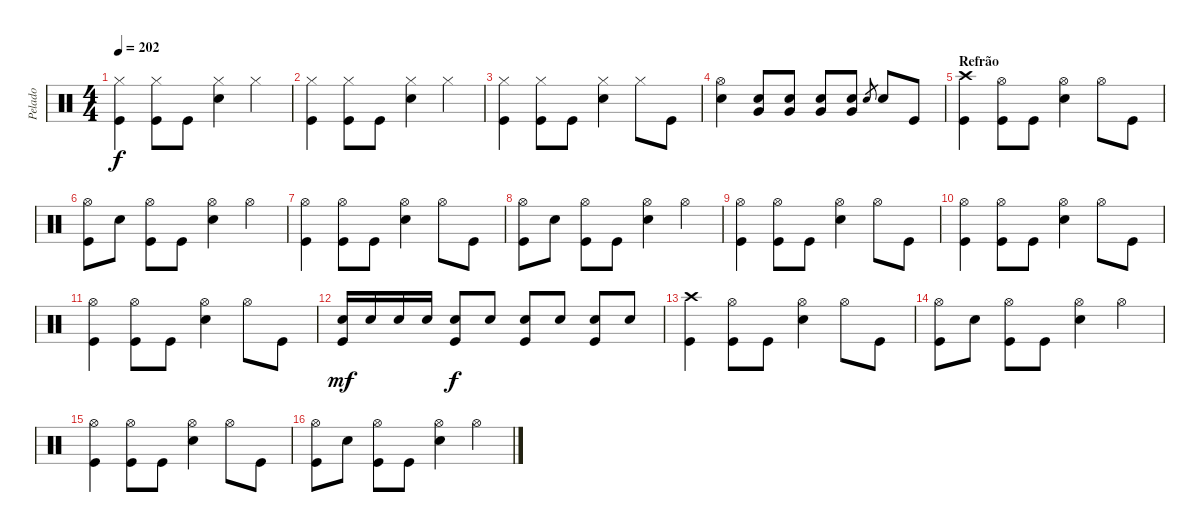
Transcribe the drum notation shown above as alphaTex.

\track ("Pelado" "Pelado") {instrument percussion}
\staff {score}
\articulation defaults
\ts (4 4)
\tempo 202
\clef neutral
\ks c
("Hi-Hat (closed)" "Kick (hit)").4{dy f} ("Hi-Hat (closed)" "Kick (hit)").8 "Kick (hit)".8 ("Hi-Hat (closed)" "Electric Snare (hit)").4 "Hi-Hat (closed)".4 |
("Hi-Hat (closed)" "Kick (hit)").4 ("Hi-Hat (closed)" "Kick (hit)").8 "Kick (hit)".8 ("Hi-Hat (closed)" "Electric Snare (hit)").4 "Hi-Hat (closed)".4 |
("Hi-Hat (closed)" "Kick (hit)").4 ("Hi-Hat (closed)" "Kick (hit)").8 "Kick (hit)".8 ("Hi-Hat (closed)" "Electric Snare (hit)").4 "Hi-Hat (closed)".8 "Kick (hit)".8 |
("Hi-Hat (open)" "Electric Snare (hit)").4 ("Very Low Tom (hit)" "Electric Snare (hit)").8 ("Very Low Tom (hit)" "Electric Snare (hit)").8 ("Very Low Tom (hit)" "Electric Snare (hit)").8 ("Very Low Tom (hit)" "Electric Snare (hit)").8 "Electric Snare (hit)".8{gr} "Electric Snare (hit)".8 "Kick (hit)".8 |
\section ("" "Refrão")
("Crash high (hit)" "Kick (hit)").4 ("Hi-Hat (open)" "Kick (hit)").8 "Kick (hit)".8 ("Hi-Hat (open)" "Electric Snare (hit)").4 "Hi-Hat (open)".8 "Kick (hit)".8 |
("Hi-Hat (open)" "Kick (hit)").8 "Electric Snare (hit)".8 ("Hi-Hat (open)" "Kick (hit)").8 "Kick (hit)".8 ("Hi-Hat (open)" "Electric Snare (hit)").4 "Hi-Hat (open)".4 |
("Hi-Hat (open)" "Kick (hit)").4 ("Hi-Hat (open)" "Kick (hit)").8 "Kick (hit)".8 ("Hi-Hat (open)" "Electric Snare (hit)").4 "Hi-Hat (open)".8 "Kick (hit)".8 |
("Hi-Hat (open)" "Kick (hit)").8 "Electric Snare (hit)".8 ("Hi-Hat (open)" "Kick (hit)").8 "Kick (hit)".8 ("Hi-Hat (open)" "Electric Snare (hit)").4 "Hi-Hat (open)".4 |
("Hi-Hat (open)" "Kick (hit)").4 ("Hi-Hat (open)" "Kick (hit)").8 "Kick (hit)".8 ("Hi-Hat (open)" "Electric Snare (hit)").4 "Hi-Hat (open)".8 "Kick (hit)".8 |
("Hi-Hat (open)" "Kick (hit)").4 ("Hi-Hat (open)" "Kick (hit)").8 "Kick (hit)".8 ("Hi-Hat (open)" "Electric Snare (hit)").4 "Hi-Hat (open)".8 "Kick (hit)".8 |
("Hi-Hat (open)" "Kick (hit)").4 ("Hi-Hat (open)" "Kick (hit)").8 "Kick (hit)".8 ("Hi-Hat (open)" "Electric Snare (hit)").4 "Hi-Hat (open)".8 "Kick (hit)".8 |
("Electric Snare (hit)" "Kick (hit)").16{dy mf} "Electric Snare (hit)".16 "Electric Snare (hit)".16 "Electric Snare (hit)".16 ("Electric Snare (hit)" "Kick (hit)").8{dy f} "Electric Snare (hit)".8 ("Electric Snare (hit)" "Kick (hit)").8 "Electric Snare (hit)".8 ("Electric Snare (hit)" "Kick (hit)").8 "Electric Snare (hit)".8 |
("Crash high (hit)" "Kick (hit)").4 ("Hi-Hat (open)" "Kick (hit)").8 "Kick (hit)".8 ("Hi-Hat (open)" "Electric Snare (hit)").4 "Hi-Hat (open)".8 "Kick (hit)".8 |
("Hi-Hat (open)" "Kick (hit)").8 "Electric Snare (hit)".8 ("Hi-Hat (open)" "Kick (hit)").8 "Kick (hit)".8 ("Hi-Hat (open)" "Electric Snare (hit)").4 "Hi-Hat (open)".4 |
("Hi-Hat (open)" "Kick (hit)").4 ("Hi-Hat (open)" "Kick (hit)").8 "Kick (hit)".8 ("Hi-Hat (open)" "Electric Snare (hit)").4 "Hi-Hat (open)".8 "Kick (hit)".8 |
("Hi-Hat (open)" "Kick (hit)").8 "Electric Snare (hit)".8 ("Hi-Hat (open)" "Kick (hit)").8 "Kick (hit)".8 ("Hi-Hat (open)" "Electric Snare (hit)").4 "Hi-Hat (open)".4
